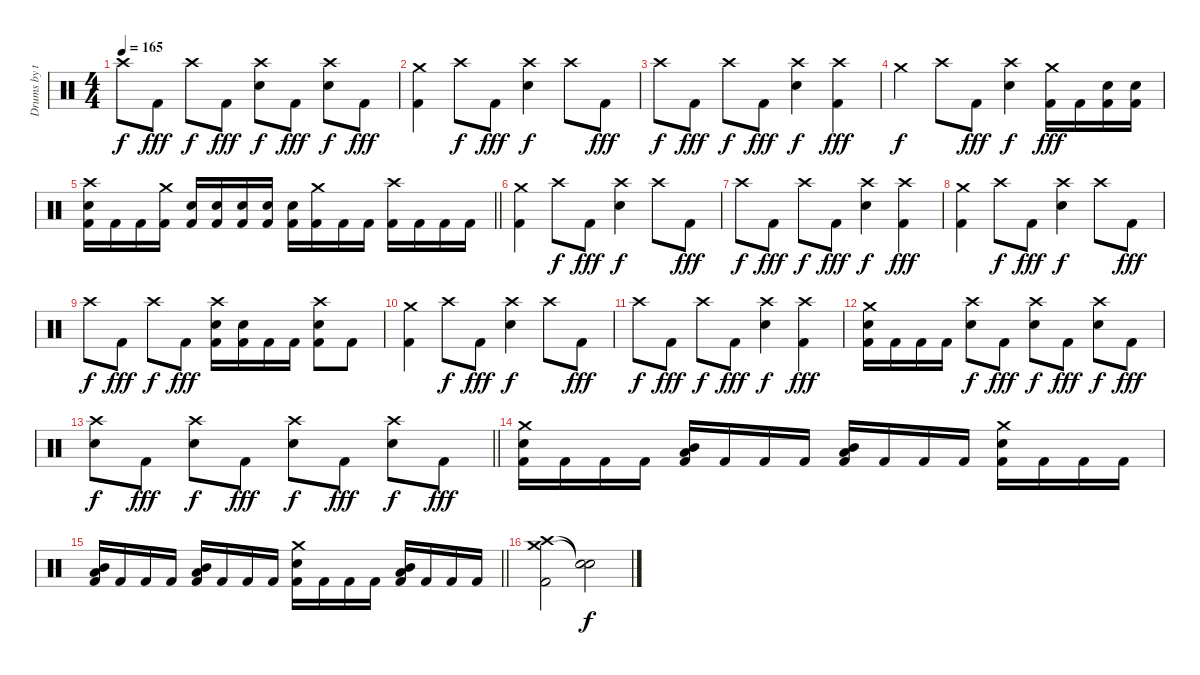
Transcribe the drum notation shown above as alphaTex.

\track ("Drums by terryn0" "Drums by t") {instrument percussion}
\staff {score}
\articulation defaults
\ts (4 4)
\tempo 165
\clef neutral
\ks c "Crash high (hit)".8{dy f} "Kick (hit) 2".8{dy fff} "Crash high (hit)".8{dy f} "Kick (hit) 2".8{dy fff}
("Crash high (hit)" "Electric Snare (hit)").8{dy f} "Kick (hit) 2".8{dy fff} ("Crash high (hit)" "Electric Snare (hit)").8{dy f} "Kick (hit) 2".8{dy fff} |
("Crash medium (hit)" "Kick (hit) 2").4 "Crash high (hit)".8{dy f} "Kick (hit) 2".8{dy fff} ("Crash high (hit)" "Electric Snare (hit)").4{dy f} "Crash high (hit)".8 "Kick (hit) 2".8{dy fff} |
"Crash high (hit)".8{dy f} "Kick (hit) 2".8{dy fff} "Crash high (hit)".8{dy f} "Kick (hit) 2".8{dy fff} ("Crash high (hit)" "Electric Snare (hit)").4{dy f} ("Crash high (hit)" "Kick (hit) 2").4{dy fff} |
"Crash medium (hit)".4{dy f} "Crash high (hit)".8 "Kick (hit) 2".8{dy fff} ("Crash high (hit)" "Electric Snare (hit)").4{dy f} ("Crash medium (hit)" "Kick (hit) 2").16{dy fff} "Kick (hit) 2".16 ("Electric Snare (hit)" "Kick (hit) 2").16 ("Electric Snare (hit)" "Kick (hit) 2").16 |
\barLineRight lightlight
("Crash high (hit)" "Electric Snare (hit)" "Kick (hit) 2").16 "Kick (hit) 2".16 "Kick (hit) 2".16 ("Crash medium (hit)" "Kick (hit) 2").16 ("Electric Snare (hit)" "Kick (hit) 2").16 ("Electric Snare (hit)" "Kick (hit) 2").16 ("Electric Snare (hit)" "Kick (hit) 2").16 ("Electric Snare (hit)" "Kick (hit) 2").16 ("Electric Snare (hit)" "Kick (hit) 2").16 ("Crash medium (hit)" "Kick (hit) 2").16 "Kick (hit) 2".16 "Kick (hit) 2".16 ("Crash high (hit)" "Kick (hit) 2").16 "Kick (hit) 2".16 "Kick (hit) 2".16 "Kick (hit) 2".16 |
("Crash medium (hit)" "Kick (hit) 2").4 "Crash high (hit)".8{dy f} "Kick (hit) 2".8{dy fff} ("Crash high (hit)" "Electric Snare (hit)").4{dy f} "Crash high (hit)".8 "Kick (hit) 2".8{dy fff} |
"Crash high (hit)".8{dy f} "Kick (hit) 2".8{dy fff} "Crash high (hit)".8{dy f} "Kick (hit) 2".8{dy fff} ("Crash high (hit)" "Electric Snare (hit)").4{dy f} ("Crash high (hit)" "Kick (hit) 2").4{dy fff} |
("Crash medium (hit)" "Kick (hit) 2").4 "Crash high (hit)".8{dy f} "Kick (hit) 2".8{dy fff} ("Crash high (hit)" "Electric Snare (hit)").4{dy f} "Crash high (hit)".8 "Kick (hit) 2".8{dy fff} |
"Crash high (hit)".8{dy f} "Kick (hit) 2".8{dy fff} "Crash high (hit)".8{dy f} "Kick (hit) 2".8{dy fff} ("Crash high (hit)" "Electric Snare (hit)" "Kick (hit) 2").16 ("Electric Snare (hit)" "Kick (hit) 2").16 "Kick (hit) 2".16 "Kick (hit) 2".16 ("Crash high (hit)" "Electric Snare (hit)" "Kick (hit) 2").8 "Kick (hit) 2".8 |
("Crash medium (hit)" "Kick (hit) 2").4 "Crash high (hit)".8{dy f} "Kick (hit) 2".8{dy fff} ("Crash high (hit)" "Electric Snare (hit)").4{dy f} "Crash high (hit)".8 "Kick (hit) 2".8{dy fff} |
"Crash high (hit)".8{dy f} "Kick (hit) 2".8{dy fff} "Crash high (hit)".8{dy f} "Kick (hit) 2".8{dy fff} ("Crash high (hit)" "Electric Snare (hit)").4{dy f} ("Crash high (hit)" "Kick (hit) 2").4{dy fff} |
("Crash medium (hit)" "Electric Snare (hit)" "Kick (hit) 2").16 "Kick (hit) 2".16 "Kick (hit) 2".16 "Kick (hit) 2".16 ("Crash high (hit)" "Electric Snare (hit)").8{dy f} "Kick (hit) 2".8{dy fff} ("Crash high (hit)" "Electric Snare (hit)").8{dy f} "Kick (hit) 2".8{dy fff} ("Crash high (hit)" "Electric Snare (hit)").8{dy f} "Kick (hit) 2".8{dy fff} |
\barLineRight lightlight
("Crash high (hit)" "Electric Snare (hit)").8{dy f} "Kick (hit) 2".8{dy fff} ("Crash high (hit)" "Electric Snare (hit)").8{dy f} "Kick (hit) 2".8{dy fff} ("Crash high (hit)" "Electric Snare (hit)").8{dy f} "Kick (hit) 2".8{dy fff} ("Crash high (hit)" "Electric Snare (hit)").8{dy f} "Kick (hit) 2".8{dy fff} |
("Crash medium (hit)" "Electric Snare (hit)" "Kick (hit) 2").16 "Kick (hit) 2".16 "Kick (hit) 2".16 "Kick (hit) 2".16 ("Mid Tom (hit)" "Low Tom (hit)" "Kick (hit) 2").16 "Kick (hit) 2".16 "Kick (hit) 2".16 "Kick (hit) 2".16 ("Mid Tom (hit)" "Low Tom (hit)" "Kick (hit) 2").16 "Kick (hit) 2".16 "Kick (hit) 2".16 "Kick (hit) 2".16 ("Crash medium (hit)" "Electric Snare (hit)" "Kick (hit) 2").16 "Kick (hit) 2".16 "Kick (hit) 2".16 "Kick (hit) 2".16 |
\barLineRight lightlight
("Mid Tom (hit)" "Low Tom (hit)" "Kick (hit) 2").16 "Kick (hit) 2".16 "Kick (hit) 2".16 "Kick (hit) 2".16 ("Mid Tom (hit)" "Low Tom (hit)" "Kick (hit) 2").16 "Kick (hit) 2".16 "Kick (hit) 2".16 "Kick (hit) 2".16 ("Crash medium (hit)" "Electric Snare (hit)" "Kick (hit) 2").16 "Kick (hit) 2".16 "Kick (hit) 2".16 "Kick (hit) 2".16 ("Mid Tom (hit)" "Low Tom (hit)" "Kick (hit) 2").16 "Kick (hit) 2".16 "Kick (hit) 2".16 "Kick (hit) 2".16 |
("Crash high (hit)" "Crash medium (hit)" "Kick (hit) 2").2 ("Snare (hit)"{t} "Snare (hit)"{t}).2{dy f volume 0}
